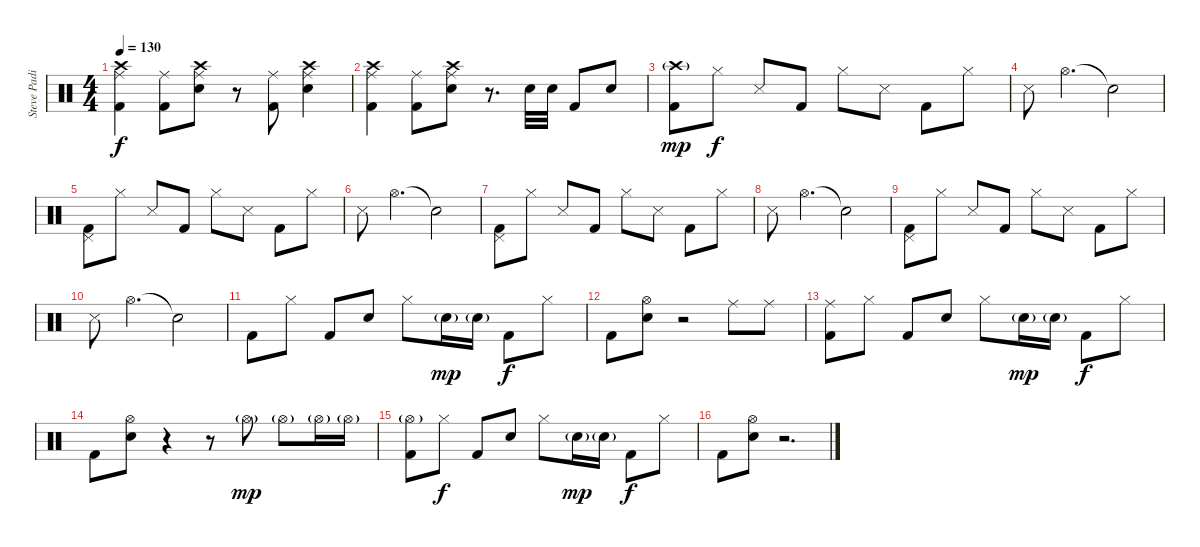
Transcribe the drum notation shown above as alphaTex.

\track ("Steve Padin" "Steve Padi") {instrument percussion}
\staff {score}
\articulation defaults
\ts (4 4)
\tempo 130
\clef neutral
\ks c
("Crash high (hit)" "Ride (middle)" "Kick (hit) 2").4{dy f} ("Ride (middle)" "Kick (hit) 2").8 ("Crash high (hit)" "Ride (middle)" "Electric Snare (hit)").8 r.8 ("Ride (middle)" "Kick (hit) 2").8 ("Crash high (hit)" "Ride (middle)" "Electric Snare (hit)").4 |
("Crash high (hit)" "Ride (middle)" "Kick (hit) 2").4 ("Ride (middle)" "Kick (hit) 2").8 ("Crash high (hit)" "Ride (middle)" "Electric Snare (hit)").8 r.8{d} "Electric Snare (hit)".32 "Electric Snare (hit)".32 "Kick (hit) 2".8 "Electric Snare (hit)".8 |
("Crash high (hit)"{g} "Kick (hit) 2").8{dy mp} "Hi-Hat (closed)".8{dy f} "Snare (side stick) 3".8 "Kick (hit) 2".8 "Hi-Hat (closed)".8 "Snare (side stick) 3".8 "Kick (hit) 2".8 "Hi-Hat (closed)".8 |
"Snare (side stick) 3".8 "Hi-Hat (open)".4{d} "Snare (hit)"{t}.2 |
("Pedal Hi-Hat (hit)" "Kick (hit) 2").8 "Hi-Hat (closed)".8 "Snare (side stick) 3".8 "Kick (hit) 2".8 "Hi-Hat (closed)".8 "Snare (side stick) 3".8 "Kick (hit) 2".8 "Hi-Hat (closed)".8 |
"Snare (side stick) 3".8 "Hi-Hat (open)".4{d} "Snare (hit)"{t}.2 |
("Pedal Hi-Hat (hit)" "Kick (hit) 2").8 "Hi-Hat (closed)".8 "Snare (side stick) 3".8 "Kick (hit) 2".8 "Hi-Hat (closed)".8 "Snare (side stick) 3".8 "Kick (hit) 2".8 "Hi-Hat (closed)".8 |
"Snare (side stick) 3".8 "Hi-Hat (open)".4{d} "Snare (hit)"{t}.2 |
("Pedal Hi-Hat (hit)" "Kick (hit) 2").8 "Hi-Hat (closed)".8 "Snare (side stick) 3".8 "Kick (hit) 2".8 "Hi-Hat (closed)".8 "Snare (side stick) 3".8 "Kick (hit) 2".8 "Hi-Hat (closed)".8 |
"Snare (side stick) 3".8 "Hi-Hat (open)".4{d} "Snare (hit)"{t}.2 |
"Kick (hit) 2".8 "Hi-Hat (closed)".8 "Kick (hit) 2".8 "Electric Snare (hit)".8 "Hi-Hat (closed)".8 "Electric Snare (hit)"{g}.16{dy mp} "Electric Snare (hit)"{g}.16 "Kick (hit) 2".8{dy f} "Hi-Hat (closed)".8 |
"Kick (hit) 2".8 ("Hi-Hat (open)" "Electric Snare (hit)").8 r.2 "Ride (middle)".8 "Ride (middle)".8 |
("Ride (middle)" "Kick (hit) 2").8 "Hi-Hat (closed)".8 "Kick (hit) 2".8 "Electric Snare (hit)".8 "Hi-Hat (closed)".8 "Electric Snare (hit)"{g}.16{dy mp} "Electric Snare (hit)"{g}.16 "Kick (hit) 2".8{dy f} "Hi-Hat (closed)".8 |
"Kick (hit) 2".8 ("Hi-Hat (open)" "Electric Snare (hit)").8 r.4 r.8 "Hi-Hat (open)"{g}.8{dy mp} "Hi-Hat (open)"{g}.8 "Hi-Hat (open)"{g}.16 "Hi-Hat (open)"{g}.16 |
("Hi-Hat (open)"{g} "Kick (hit) 2").8 "Hi-Hat (closed)".8{dy f} "Kick (hit) 2".8 "Electric Snare (hit)".8 "Hi-Hat (closed)".8 "Electric Snare (hit)"{g}.16{dy mp} "Electric Snare (hit)"{g}.16 "Kick (hit) 2".8{dy f} "Hi-Hat (closed)".8 |
"Kick (hit) 2".8 ("Hi-Hat (open)" "Electric Snare (hit)").8 r.2{d}
